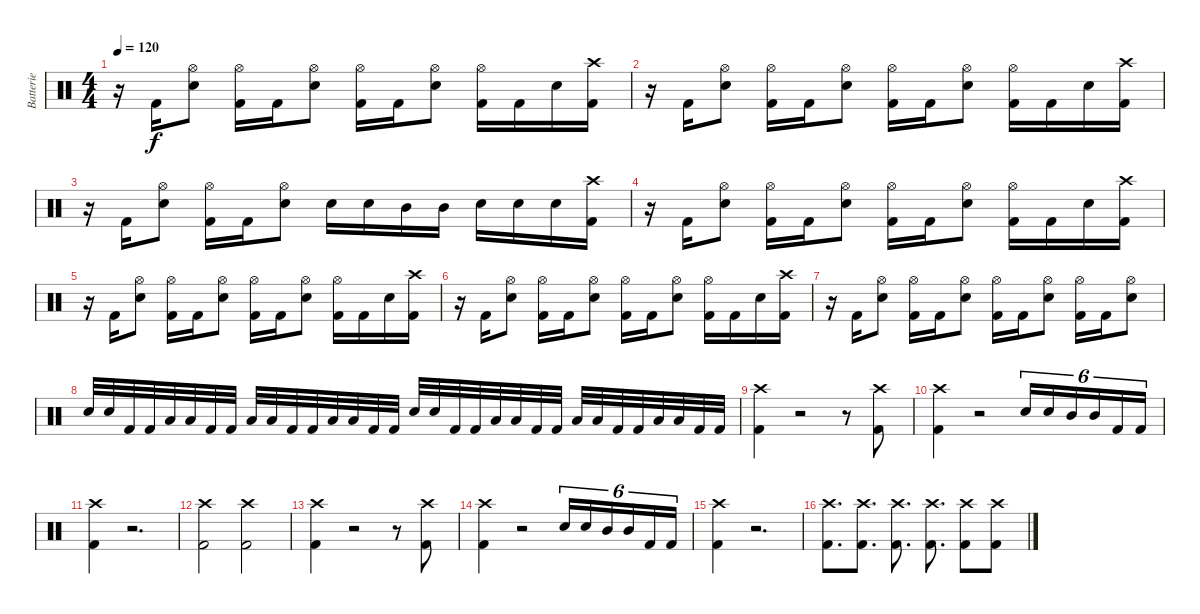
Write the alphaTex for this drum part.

\track ("Batterie" "Batterie") {instrument percussion}
\staff {score}
\articulation defaults
\ts (4 4)
\tempo 120
\clef neutral
\ks c
r.16{dy f} "Kick (hit) 2".16 ("Hi-Hat (open)" "Electric Snare (hit)").8 ("Hi-Hat (open)" "Kick (hit) 2").16 "Kick (hit) 2".16 ("Hi-Hat (open)" "Electric Snare (hit)").8 ("Hi-Hat (open)" "Kick (hit) 2").16 "Kick (hit) 2".16 ("Hi-Hat (open)" "Electric Snare (hit)").8 ("Hi-Hat (open)" "Kick (hit) 2").16 "Kick (hit) 2".16 "Electric Snare (hit)".16 ("Crash high (hit)" "Kick (hit) 2").16 |
r.16 "Kick (hit) 2".16 ("Hi-Hat (open)" "Electric Snare (hit)").8 ("Hi-Hat (open)" "Kick (hit) 2").16 "Kick (hit) 2".16 ("Hi-Hat (open)" "Electric Snare (hit)").8 ("Hi-Hat (open)" "Kick (hit) 2").16 "Kick (hit) 2".16 ("Hi-Hat (open)" "Electric Snare (hit)").8 ("Hi-Hat (open)" "Kick (hit) 2").16 "Kick (hit) 2".16 "Electric Snare (hit)".16 ("Crash high (hit)" "Kick (hit) 2").16 |
r.16 "Kick (hit) 2".16 ("Hi-Hat (open)" "Electric Snare (hit)").8 ("Hi-Hat (open)" "Kick (hit) 2").16 "Kick (hit) 2".16 ("Hi-Hat (open)" "Electric Snare (hit)").8 "Electric Snare (hit)".16 "Electric Snare (hit)".16 "Mid Tom (hit)".16 "Mid Tom (hit)".16 "Electric Snare (hit)".16 "Electric Snare (hit)".16 "Electric Snare (hit)".16 ("Crash high (hit)" "Kick (hit) 2").16 |
r.16 "Kick (hit) 2".16 ("Hi-Hat (open)" "Electric Snare (hit)").8 ("Hi-Hat (open)" "Kick (hit) 2").16 "Kick (hit) 2".16 ("Hi-Hat (open)" "Electric Snare (hit)").8 ("Hi-Hat (open)" "Kick (hit) 2").16 "Kick (hit) 2".16 ("Hi-Hat (open)" "Electric Snare (hit)").8 ("Hi-Hat (open)" "Kick (hit) 2").16 "Kick (hit) 2".16 "Electric Snare (hit)".16 ("Crash high (hit)" "Kick (hit) 2").16 |
r.16 "Kick (hit) 2".16 ("Hi-Hat (open)" "Electric Snare (hit)").8 ("Hi-Hat (open)" "Kick (hit) 2").16 "Kick (hit) 2".16 ("Hi-Hat (open)" "Electric Snare (hit)").8 ("Hi-Hat (open)" "Kick (hit) 2").16 "Kick (hit) 2".16 ("Hi-Hat (open)" "Electric Snare (hit)").8 ("Hi-Hat (open)" "Kick (hit) 2").16 "Kick (hit) 2".16 "Electric Snare (hit)".16 ("Crash high (hit)" "Kick (hit) 2").16 |
r.16 "Kick (hit) 2".16 ("Hi-Hat (open)" "Electric Snare (hit)").8 ("Hi-Hat (open)" "Kick (hit) 2").16 "Kick (hit) 2".16 ("Hi-Hat (open)" "Electric Snare (hit)").8 ("Hi-Hat (open)" "Kick (hit) 2").16 "Kick (hit) 2".16 ("Hi-Hat (open)" "Electric Snare (hit)").8 ("Hi-Hat (open)" "Kick (hit) 2").16 "Kick (hit) 2".16 "Electric Snare (hit)".16 ("Crash high (hit)" "Kick (hit) 2").16 |
r.16 "Kick (hit) 2".16 ("Hi-Hat (open)" "Electric Snare (hit)").8 ("Hi-Hat (open)" "Kick (hit) 2").16 "Kick (hit) 2".16 ("Hi-Hat (open)" "Electric Snare (hit)").8 ("Hi-Hat (open)" "Kick (hit) 2").16 "Kick (hit) 2".16 ("Hi-Hat (open)" "Electric Snare (hit)").8 ("Hi-Hat (open)" "Kick (hit) 2").16 "Kick (hit) 2".16 ("Hi-Hat (open)" "Electric Snare (hit)").8 |
"Electric Snare (hit)".32 "Electric Snare (hit)".32 "Kick (hit) 2".32 "Kick (hit) 2".32 "Low Tom (hit)".32 "Low Tom (hit)".32 "Kick (hit) 2".32 "Kick (hit) 2".32 "Low Tom (hit)".32 "Low Tom (hit)".32 "Kick (hit) 2".32 "Kick (hit) 2".32 "Low Tom (hit)".32 "Low Tom (hit)".32 "Kick (hit) 2".32 "Kick (hit) 2".32 "Electric Snare (hit)".32 "Electric Snare (hit)".32 "Kick (hit) 2".32 "Kick (hit) 2".32 "Low Tom (hit)".32 "Low Tom (hit)".32 "Kick (hit) 2".32 "Kick (hit) 2".32 "Low Tom (hit)".32 "Low Tom (hit)".32 "Kick (hit) 2".32 "Kick (hit) 2".32 "Low Tom (hit)".32 "Low Tom (hit)".32 "Kick (hit) 2".32 "Kick (hit) 2".32 |
("Crash high (hit)" "Kick (hit) 2").4 r.2 r.8 ("Crash high (hit)" "Kick (hit) 2").8 |
("Crash high (hit)" "Kick (hit) 2").4 r.2 "Electric Snare (hit)".16{tu (6 4)} "Electric Snare (hit)".16{tu (6 4)} "Mid Tom (hit)".16{tu (6 4)} "Mid Tom (hit)".16{tu (6 4)} "Kick (hit) 2".16{tu (6 4)} "Kick (hit) 2".16{tu (6 4)} |
("Kick (hit) 2" "Crash high (hit)").4 r.2{d} |
("Crash high (hit)" "Kick (hit) 2").2 ("Crash high (hit)" "Kick (hit) 2").2 |
("Crash high (hit)" "Kick (hit) 2").4 r.2 r.8 ("Crash high (hit)" "Kick (hit) 2").8 |
("Crash high (hit)" "Kick (hit) 2").4 r.2 "Electric Snare (hit)".16{tu (6 4)} "Electric Snare (hit)".16{tu (6 4)} "Mid Tom (hit)".16{tu (6 4)} "Mid Tom (hit)".16{tu (6 4)} "Kick (hit) 2".16{tu (6 4)} "Kick (hit) 2".16{tu (6 4)} |
("Kick (hit) 2" "Crash high (hit)").4 r.2{d} |
("Crash high (hit)" "Kick (hit) 2").8{d} ("Crash high (hit)" "Kick (hit) 2").8{d} ("Crash high (hit)" "Kick (hit) 2").8{d} ("Crash high (hit)" "Kick (hit) 2").8{d} ("Crash high (hit)" "Kick (hit) 2").8 ("Crash high (hit)" "Kick (hit) 2").8
